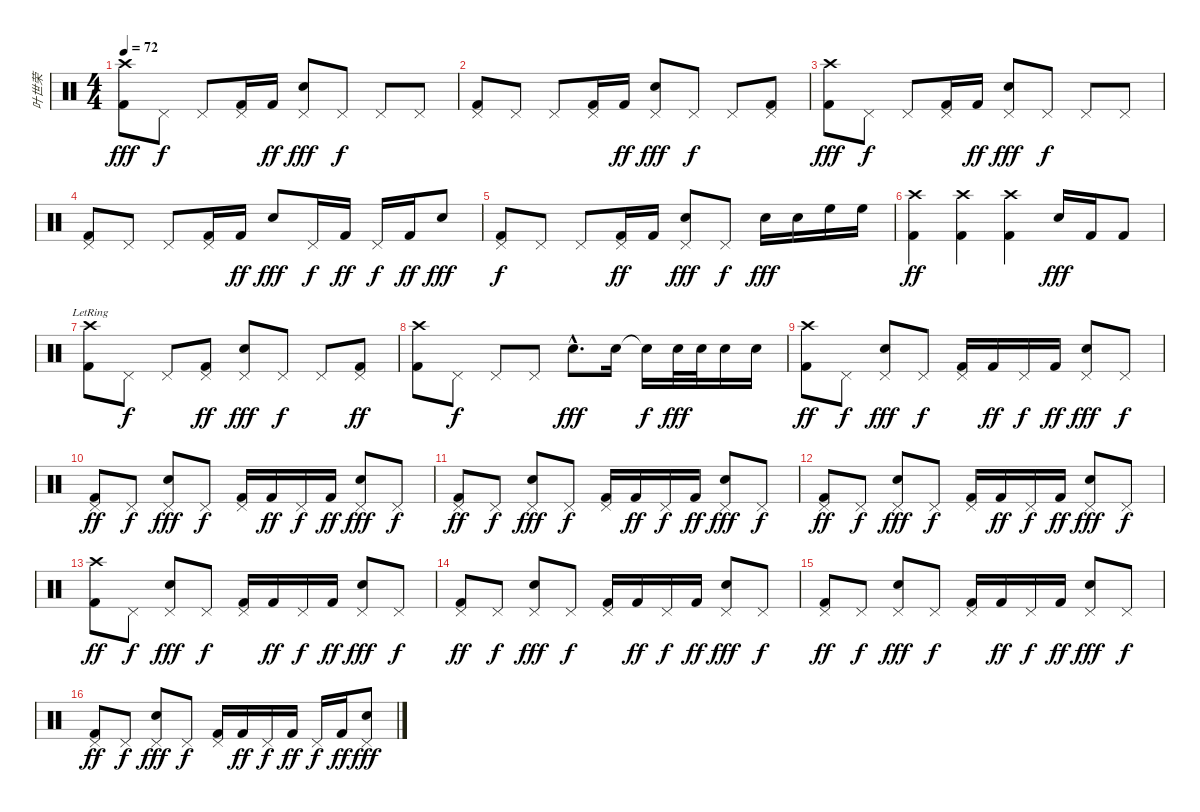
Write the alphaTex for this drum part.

\track ("叶世荣" "叶世荣") {instrument percussion}
\staff {score}
\articulation defaults
\ts (4 4)
\tempo 72
\clef neutral
\ks c
("Crash high (hit)" "Kick (hit) 2").8{dy fff} "Pedal Hi-Hat (hit)".8{dy f} "Pedal Hi-Hat (hit)".8 ("Pedal Hi-Hat (hit)" "Kick (hit) 2").16 "Kick (hit) 2".16{dy ff} ("Pedal Hi-Hat (hit)" "Electric Snare (hit)").8{dy fff} "Pedal Hi-Hat (hit)".8{dy f} "Pedal Hi-Hat (hit)".8 "Pedal Hi-Hat (hit)".8 |
("Pedal Hi-Hat (hit)" "Kick (hit) 2").8 "Pedal Hi-Hat (hit)".8 "Pedal Hi-Hat (hit)".8 ("Pedal Hi-Hat (hit)" "Kick (hit) 2").16 "Kick (hit) 2".16{dy ff} ("Pedal Hi-Hat (hit)" "Electric Snare (hit)").8{dy fff} "Pedal Hi-Hat (hit)".8{dy f} "Pedal Hi-Hat (hit)".8 ("Pedal Hi-Hat (hit)" "Kick (hit) 2").8 |
("Crash high (hit)" "Kick (hit) 2").8{dy fff} "Pedal Hi-Hat (hit)".8{dy f} "Pedal Hi-Hat (hit)".8 ("Pedal Hi-Hat (hit)" "Kick (hit) 2").16 "Kick (hit) 2".16{dy ff} ("Pedal Hi-Hat (hit)" "Electric Snare (hit)").8{dy fff} "Pedal Hi-Hat (hit)".8{dy f} "Pedal Hi-Hat (hit)".8 "Pedal Hi-Hat (hit)".8 |
("Pedal Hi-Hat (hit)" "Kick (hit) 2").8 "Pedal Hi-Hat (hit)".8 "Pedal Hi-Hat (hit)".8 ("Pedal Hi-Hat (hit)" "Kick (hit) 2").16 "Kick (hit) 2".16{dy ff} "Electric Snare (hit)".8{dy fff} "Pedal Hi-Hat (hit)".16{dy f} "Kick (hit) 2".16{dy ff} "Pedal Hi-Hat (hit)".16{dy f} "Kick (hit) 2".16{dy ff} "Electric Snare (hit)".8{dy fff} |
("Pedal Hi-Hat (hit)" "Kick (hit) 2").8{dy f} "Pedal Hi-Hat (hit)".8 "Pedal Hi-Hat (hit)".8 ("Pedal Hi-Hat (hit)" "Kick (hit) 2").16{dy ff} "Kick (hit) 2".16 ("Pedal Hi-Hat (hit)" "Electric Snare (hit)").8{dy fff} "Pedal Hi-Hat (hit)".8{dy f} "Electric Snare (hit)".16{dy fff} "Electric Snare (hit)".16 "High Floor Tom (hit)".16 "High Floor Tom (hit)".16 |
("Crash high (hit)" "Kick (hit) 2").4{dy ff} ("Crash high (hit)" "Kick (hit) 2").4 ("Crash high (hit)" "Kick (hit) 2").4 "Electric Snare (hit)".16{dy fff} "Kick (hit) 2".16 "Kick (hit) 2".8 |
("Crash high (hit)"{lr} "Kick (hit) 2").8 "Pedal Hi-Hat (hit)".8{dy f} "Pedal Hi-Hat (hit)".8 ("Pedal Hi-Hat (hit)" "Kick (hit) 2").8{dy ff} ("Pedal Hi-Hat (hit)" "Electric Snare (hit)").8{dy fff} "Pedal Hi-Hat (hit)".8{dy f} "Pedal Hi-Hat (hit)".8 ("Pedal Hi-Hat (hit)" "Kick (hit) 2").8{dy ff} |
("Crash high (hit)" "Kick (hit) 2").8 "Pedal Hi-Hat (hit)".8{dy f} "Pedal Hi-Hat (hit)".8 "Pedal Hi-Hat (hit)".8 "Electric Snare (hit)"{hac}.8{d dy fff} "Electric Snare (hit)".16 "Snare (hit)"{t}.16{dy f} "Electric Snare (hit)".32{dy fff} "Electric Snare (hit)".32 "Electric Snare (hit)".16 "Electric Snare (hit)".16 |
("Crash high (hit)" "Kick (hit) 2").8{dy ff} "Pedal Hi-Hat (hit)".8{dy f} ("Pedal Hi-Hat (hit)" "Electric Snare (hit)").8{dy fff} "Pedal Hi-Hat (hit)".8{dy f} ("Pedal Hi-Hat (hit)" "Kick (hit) 2").16 "Kick (hit) 2".16{dy ff} "Pedal Hi-Hat (hit)".16{dy f} "Kick (hit) 2".16{dy ff} ("Pedal Hi-Hat (hit)" "Electric Snare (hit)").8{dy fff} "Pedal Hi-Hat (hit)".8{dy f} |
("Pedal Hi-Hat (hit)" "Kick (hit) 2").8{dy ff} "Pedal Hi-Hat (hit)".8{dy f} ("Pedal Hi-Hat (hit)" "Electric Snare (hit)").8{dy fff} "Pedal Hi-Hat (hit)".8{dy f} ("Pedal Hi-Hat (hit)" "Kick (hit) 2").16 "Kick (hit) 2".16{dy ff} "Pedal Hi-Hat (hit)".16{dy f} "Kick (hit) 2".16{dy ff} ("Pedal Hi-Hat (hit)" "Electric Snare (hit)").8{dy fff} "Pedal Hi-Hat (hit)".8{dy f} |
("Pedal Hi-Hat (hit)" "Kick (hit) 2").8{dy ff} "Pedal Hi-Hat (hit)".8{dy f} ("Pedal Hi-Hat (hit)" "Electric Snare (hit)").8{dy fff} "Pedal Hi-Hat (hit)".8{dy f} ("Pedal Hi-Hat (hit)" "Kick (hit) 2").16 "Kick (hit) 2".16{dy ff} "Pedal Hi-Hat (hit)".16{dy f} "Kick (hit) 2".16{dy ff} ("Pedal Hi-Hat (hit)" "Electric Snare (hit)").8{dy fff} "Pedal Hi-Hat (hit)".8{dy f} |
("Pedal Hi-Hat (hit)" "Kick (hit) 2").8{dy ff} "Pedal Hi-Hat (hit)".8{dy f} ("Pedal Hi-Hat (hit)" "Electric Snare (hit)").8{dy fff} "Pedal Hi-Hat (hit)".8{dy f} ("Pedal Hi-Hat (hit)" "Kick (hit) 2").16 "Kick (hit) 2".16{dy ff} "Pedal Hi-Hat (hit)".16{dy f} "Kick (hit) 2".16{dy ff} ("Pedal Hi-Hat (hit)" "Electric Snare (hit)").8{dy fff} "Pedal Hi-Hat (hit)".8{dy f} |
("Crash high (hit)" "Kick (hit) 2").8{dy ff} "Pedal Hi-Hat (hit)".8{dy f} ("Pedal Hi-Hat (hit)" "Electric Snare (hit)").8{dy fff} "Pedal Hi-Hat (hit)".8{dy f} ("Pedal Hi-Hat (hit)" "Kick (hit) 2").16 "Kick (hit) 2".16{dy ff} "Pedal Hi-Hat (hit)".16{dy f} "Kick (hit) 2".16{dy ff} ("Pedal Hi-Hat (hit)" "Electric Snare (hit)").8{dy fff} "Pedal Hi-Hat (hit)".8{dy f} |
("Pedal Hi-Hat (hit)" "Kick (hit) 2").8{dy ff} "Pedal Hi-Hat (hit)".8{dy f} ("Pedal Hi-Hat (hit)" "Electric Snare (hit)").8{dy fff} "Pedal Hi-Hat (hit)".8{dy f} ("Pedal Hi-Hat (hit)" "Kick (hit) 2").16 "Kick (hit) 2".16{dy ff} "Pedal Hi-Hat (hit)".16{dy f} "Kick (hit) 2".16{dy ff} ("Pedal Hi-Hat (hit)" "Electric Snare (hit)").8{dy fff} "Pedal Hi-Hat (hit)".8{dy f} |
("Pedal Hi-Hat (hit)" "Kick (hit) 2").8{dy ff} "Pedal Hi-Hat (hit)".8{dy f} ("Pedal Hi-Hat (hit)" "Electric Snare (hit)").8{dy fff} "Pedal Hi-Hat (hit)".8{dy f} ("Pedal Hi-Hat (hit)" "Kick (hit) 2").16 "Kick (hit) 2".16{dy ff} "Pedal Hi-Hat (hit)".16{dy f} "Kick (hit) 2".16{dy ff} ("Pedal Hi-Hat (hit)" "Electric Snare (hit)").8{dy fff} "Pedal Hi-Hat (hit)".8{dy f} |
("Pedal Hi-Hat (hit)" "Kick (hit) 2").8{dy ff} "Pedal Hi-Hat (hit)".8{dy f} ("Pedal Hi-Hat (hit)" "Electric Snare (hit)").8{dy fff} "Pedal Hi-Hat (hit)".8{dy f} ("Pedal Hi-Hat (hit)" "Kick (hit) 2").16 "Kick (hit) 2".16{dy ff} "Pedal Hi-Hat (hit)".16{dy f} "Kick (hit) 2".16{dy ff} "Pedal Hi-Hat (hit)".16{dy f} "Kick (hit) 2".16{dy ff} ("Pedal Hi-Hat (hit)" "Electric Snare (hit)").8{dy fff}
